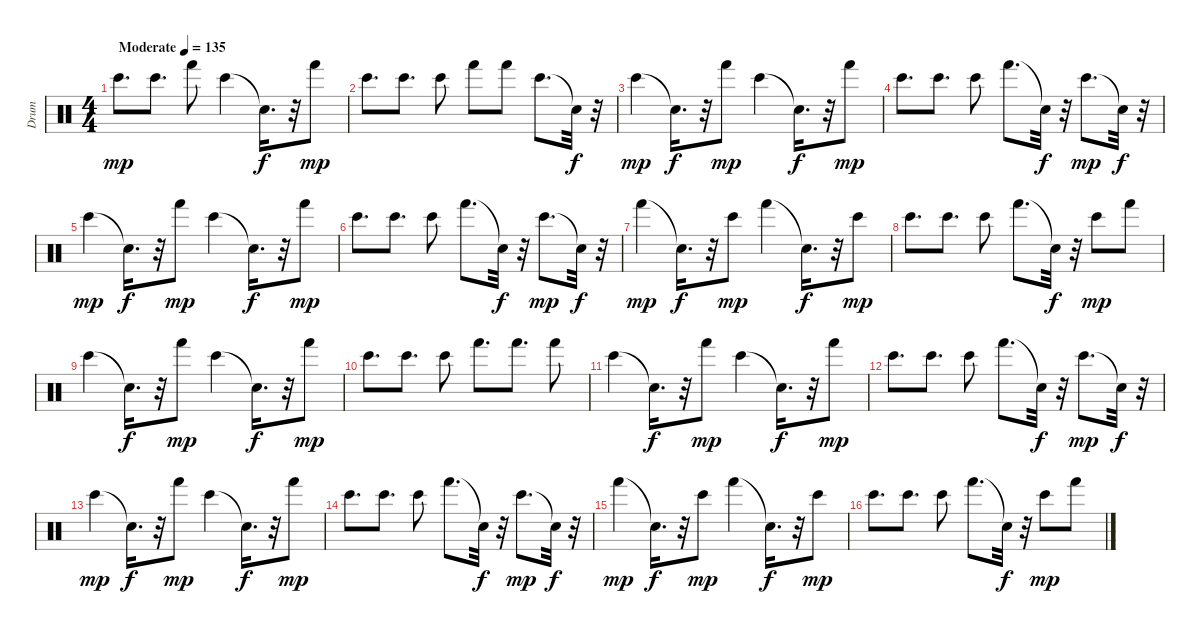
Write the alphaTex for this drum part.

\track ("Drum" "Drum") {instrument percussion}
\staff {score}
\articulation defaults
\ts (4 4)
\tempo (135 "Moderate")
\clef neutral
\ks c "Bongo High (hit)".8{d dy mp} "Bongo High (hit)".8{d} "Hand (hit)".8 "Bongo High (hit)".4 "Snare (hit)"{t}.16{d dy f}
r.32 "Hand (hit)".8{dy mp} |
"Bongo High (hit)".8{d} "Bongo High (hit)".8{d} "Bongo High (hit)".8 "Hand (hit)".8 "Hand (hit)".8 "Bongo High (hit)".8{d} "Snare (hit)"{t}.32{dy f} r.32 |
"Bongo High (hit)".4{dy mp} "Snare (hit)"{t}.16{d dy f} r.32 "Hand (hit)".8{dy mp} "Bongo High (hit)".4 "Snare (hit)"{t}.16{d dy f} r.32 "Hand (hit)".8{dy mp} |
"Bongo High (hit)".8{d} "Bongo High (hit)".8{d} "Bongo High (hit)".8 "Hand (hit)".8{d} "Snare (hit)"{t}.32{dy f} r.32 "Bongo High (hit)".8{d dy mp} "Snare (hit)"{t}.32{dy f} r.32 |
"Bongo High (hit)".4{dy mp} "Snare (hit)"{t}.16{d dy f} r.32 "Hand (hit)".8{dy mp} "Bongo High (hit)".4 "Snare (hit)"{t}.16{d dy f} r.32 "Hand (hit)".8{dy mp} |
"Bongo High (hit)".8{d} "Bongo High (hit)".8{d} "Bongo High (hit)".8 "Hand (hit)".8{d} "Snare (hit)"{t}.32{dy f} r.32 "Bongo High (hit)".8{d dy mp} "Snare (hit)"{t}.32{dy f} r.32 |
"Hand (hit)".4{dy mp} "Snare (hit)"{t}.16{d dy f} r.32 "Bongo High (hit)".8{dy mp} "Hand (hit)".4 "Snare (hit)"{t}.16{d dy f} r.32 "Bongo High (hit)".8{dy mp} |
"Bongo High (hit)".8{d} "Bongo High (hit)".8{d} "Bongo High (hit)".8 "Hand (hit)".8{d} "Snare (hit)"{t}.32{dy f} r.32 "Bongo High (hit)".8{dy mp} "Hand (hit)".8 |
"Bongo High (hit)".4 "Snare (hit)"{t}.16{d dy f} r.32 "Hand (hit)".8{dy mp} "Bongo High (hit)".4 "Snare (hit)"{t}.16{d dy f} r.32 "Hand (hit)".8{dy mp} |
"Bongo High (hit)".8{d} "Bongo High (hit)".8{d} "Bongo High (hit)".8 "Hand (hit)".8{d} "Hand (hit)".8{d} "Hand (hit)".8 |
"Bongo High (hit)".4 "Snare (hit)"{t}.16{d dy f} r.32 "Hand (hit)".8{dy mp} "Bongo High (hit)".4 "Snare (hit)"{t}.16{d dy f} r.32 "Hand (hit)".8{dy mp} |
"Bongo High (hit)".8{d} "Bongo High (hit)".8{d} "Bongo High (hit)".8 "Hand (hit)".8{d} "Snare (hit)"{t}.32{dy f} r.32 "Bongo High (hit)".8{d dy mp} "Snare (hit)"{t}.32{dy f} r.32 |
"Bongo High (hit)".4{dy mp} "Snare (hit)"{t}.16{d dy f} r.32 "Hand (hit)".8{dy mp} "Bongo High (hit)".4 "Snare (hit)"{t}.16{d dy f} r.32 "Hand (hit)".8{dy mp} |
"Bongo High (hit)".8{d} "Bongo High (hit)".8{d} "Bongo High (hit)".8 "Hand (hit)".8{d} "Snare (hit)"{t}.32{dy f} r.32 "Bongo High (hit)".8{d dy mp} "Snare (hit)"{t}.32{dy f} r.32 |
"Hand (hit)".4{dy mp} "Snare (hit)"{t}.16{d dy f} r.32 "Bongo High (hit)".8{dy mp} "Hand (hit)".4 "Snare (hit)"{t}.16{d dy f} r.32 "Bongo High (hit)".8{dy mp} |
"Bongo High (hit)".8{d} "Bongo High (hit)".8{d} "Bongo High (hit)".8 "Hand (hit)".8{d} "Snare (hit)"{t}.32{dy f} r.32 "Bongo High (hit)".8{dy mp} "Hand (hit)".8
